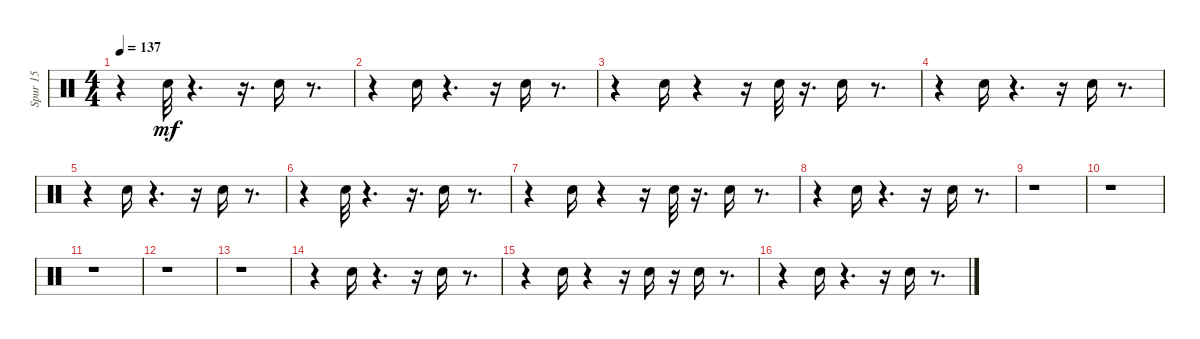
\track ("Spur 15" "Spur 15") {instrument percussion}
\staff {score}
\articulation defaults
\ts (4 4)
\tempo 137
\clef neutral
\ks c
r.4{dy mf} "Hand Clap (hit)".32 r.4{d} r.16{d} "Hand Clap (hit)".16 r.8{d} |
r.4 "Hand Clap (hit)".16 r.4{d} r.16 "Hand Clap (hit)".16 r.8{d} |
r.4 "Hand Clap (hit)".16 r.4 r.16 "Hand Clap (hit)".32 r.16{d} "Hand Clap (hit)".16 r.8{d} |
r.4 "Hand Clap (hit)".16 r.4{d} r.16 "Hand Clap (hit)".16 r.8{d} |
r.4 "Hand Clap (hit)".16 r.4{d} r.16 "Hand Clap (hit)".16 r.8{d} |
r.4 "Hand Clap (hit)".32 r.4{d} r.16{d} "Hand Clap (hit)".16 r.8{d} |
r.4 "Hand Clap (hit)".16 r.4 r.16 "Hand Clap (hit)".32 r.16{d} "Hand Clap (hit)".16 r.8{d} |
r.4 "Hand Clap (hit)".16 r.4{d} r.16 "Hand Clap (hit)".16 r.8{d} |
r.1 |
r.1 |
r.1 |
r.1 |
r.1 |
r.4 "Hand Clap (hit)".16 r.4{d} r.16 "Hand Clap (hit)".16 r.8{d} |
r.4 "Hand Clap (hit)".16 r.4 r.16 "Hand Clap (hit)".16 r.16 "Hand Clap (hit)".16 r.8{d} |
r.4 "Hand Clap (hit)".16 r.4{d} r.16 "Hand Clap (hit)".16 r.8{d}
